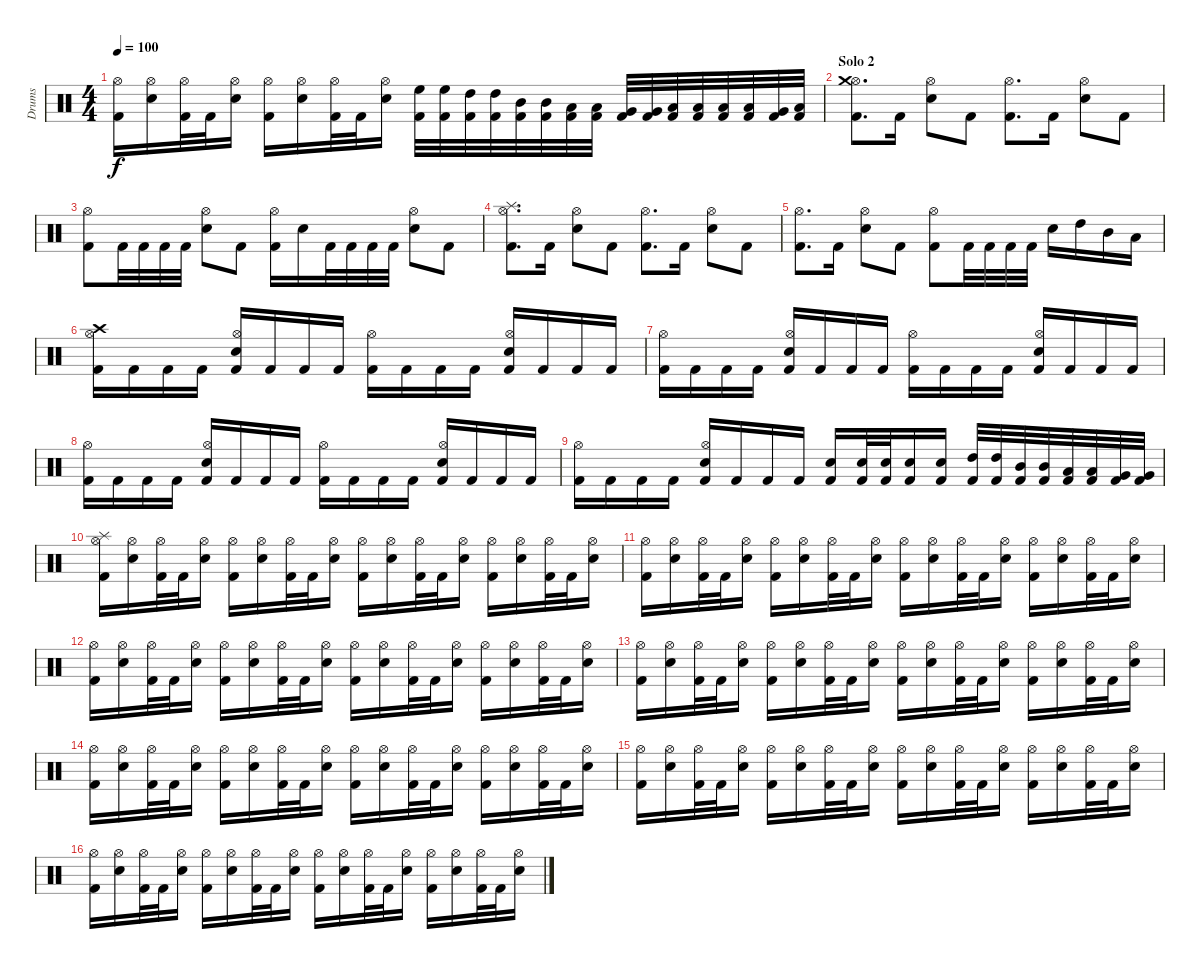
\track ("Drums" "Drums") {instrument percussion}
\staff {score}
\articulation defaults
\ts (4 4)
\tempo 100
\clef neutral
\ks c
("Kick (hit) 2" "Hi-Hat (open)").16{dy f} ("Electric Snare (hit)" "Hi-Hat (open)").16 ("Kick (hit) 2" "Hi-Hat (open)").32 "Kick (hit) 2".32 ("Electric Snare (hit)" "Hi-Hat (open)").16 ("Kick (hit) 2" "Hi-Hat (open)").16 ("Electric Snare (hit)" "Hi-Hat (open)").16 ("Kick (hit) 2" "Hi-Hat (open)").32 "Kick (hit) 2".32 ("Electric Snare (hit)" "Hi-Hat (open)").16 ("Kick (hit) 2" "High Floor Tom (hit)").32 ("Kick (hit) 2" "High Floor Tom (hit)").32 ("Kick (hit) 2" "High Tom (hit)").32 ("Kick (hit) 2" "High Tom (hit)").32 ("Kick (hit) 2" "Mid Tom (hit)").32 ("Kick (hit) 2" "Mid Tom (hit)").32 ("Kick (hit) 2" "Low Tom (hit)").32 ("Kick (hit) 2" "Low Tom (hit)").32 ("Kick (hit) 2" "Very Low Tom (hit)").32 ("Kick (hit) 2" "Very Low Tom (hit)").32 ("Kick (hit) 2" "Low Floor Tom (hit)").32 ("Kick (hit) 2" "Low Floor Tom (hit)").32 ("Kick (hit) 2" "Low Tom (hit)").32 ("Kick (hit) 2" "Low Tom (hit)").32 ("Kick (hit) 2" "Very Low Tom (hit)").32 ("Kick (hit) 2" "Low Floor Tom (hit)").32 |
\section ("" "Solo 2")
("Kick (hit) 2" "Hi-Hat (open)" "Crash medium (hit)").8{d} "Kick (hit) 2".16 ("Electric Snare (hit)" "Hi-Hat (open)").8 "Kick (hit) 2".8 ("Kick (hit) 2" "Hi-Hat (open)").8{d} "Kick (hit) 2".16 ("Electric Snare (hit)" "Hi-Hat (open)").8 "Kick (hit) 2".8 |
("Kick (hit) 2" "Hi-Hat (open)").8 "Kick (hit) 2".32 "Kick (hit) 2".32 "Kick (hit) 2".32 "Kick (hit) 2".32 ("Electric Snare (hit)" "Hi-Hat (open)").8 "Kick (hit) 2".8 ("Kick (hit) 2" "Hi-Hat (open)").16 "Electric Snare (hit)".16 "Kick (hit) 2".32 "Kick (hit) 2".32 "Kick (hit) 2".32 "Kick (hit) 2".32 ("Electric Snare (hit)" "Hi-Hat (open)").8 "Kick (hit) 2".8 |
("Kick (hit) 2" "Hi-Hat (open)" "Splash (hit)").8{d} "Kick (hit) 2".16 ("Electric Snare (hit)" "Hi-Hat (open)").8 "Kick (hit) 2".8 ("Kick (hit) 2" "Hi-Hat (open)").8{d} "Kick (hit) 2".16 ("Electric Snare (hit)" "Hi-Hat (open)").8 "Kick (hit) 2".8 |
("Kick (hit) 2" "Hi-Hat (open)").8{d} "Kick (hit) 2".16 ("Electric Snare (hit)" "Hi-Hat (open)").8 "Kick (hit) 2".8 ("Kick (hit) 2" "Hi-Hat (open)").8 "Kick (hit) 2".32 "Kick (hit) 2".32 "Kick (hit) 2".32 "Kick (hit) 2".32 "Electric Snare (hit)".16 "High Tom (hit)".16 "Mid Tom (hit)".16 "Low Tom (hit)".16 |
("Kick (hit) 2" "Hi-Hat (open)" "Crash high (hit)").16 "Kick (hit) 2".16 "Kick (hit) 2".16 "Kick (hit) 2".16 ("Kick (hit) 2" "Electric Snare (hit)" "Hi-Hat (open)").16 "Kick (hit) 2".16 "Kick (hit) 2".16 "Kick (hit) 2".16 ("Kick (hit) 2" "Hi-Hat (open)").16 "Kick (hit) 2".16 "Kick (hit) 2".16 "Kick (hit) 2".16 ("Kick (hit) 2" "Electric Snare (hit)" "Hi-Hat (open)").16 "Kick (hit) 2".16 "Kick (hit) 2".16 "Kick (hit) 2".16 |
("Kick (hit) 2" "Hi-Hat (open)").16 "Kick (hit) 2".16 "Kick (hit) 2".16 "Kick (hit) 2".16 ("Kick (hit) 2" "Electric Snare (hit)" "Hi-Hat (open)").16 "Kick (hit) 2".16 "Kick (hit) 2".16 "Kick (hit) 2".16 ("Kick (hit) 2" "Hi-Hat (open)").16 "Kick (hit) 2".16 "Kick (hit) 2".16 "Kick (hit) 2".16 ("Kick (hit) 2" "Electric Snare (hit)" "Hi-Hat (open)").16 "Kick (hit) 2".16 "Kick (hit) 2".16 "Kick (hit) 2".16 |
("Kick (hit) 2" "Hi-Hat (open)").16 "Kick (hit) 2".16 "Kick (hit) 2".16 "Kick (hit) 2".16 ("Kick (hit) 2" "Electric Snare (hit)" "Hi-Hat (open)").16 "Kick (hit) 2".16 "Kick (hit) 2".16 "Kick (hit) 2".16 ("Kick (hit) 2" "Hi-Hat (open)").16 "Kick (hit) 2".16 "Kick (hit) 2".16 "Kick (hit) 2".16 ("Kick (hit) 2" "Electric Snare (hit)" "Hi-Hat (open)").16 "Kick (hit) 2".16 "Kick (hit) 2".16 "Kick (hit) 2".16 |
("Kick (hit) 2" "Hi-Hat (open)").16 "Kick (hit) 2".16 "Kick (hit) 2".16 "Kick (hit) 2".16 ("Kick (hit) 2" "Electric Snare (hit)" "Hi-Hat (open)").16 "Kick (hit) 2".16 "Kick (hit) 2".16 "Kick (hit) 2".16 ("Kick (hit) 2" "Electric Snare (hit)").16 ("Kick (hit) 2" "Electric Snare (hit)").32 ("Kick (hit) 2" "Electric Snare (hit)").32 ("Kick (hit) 2" "Electric Snare (hit)").16 ("Kick (hit) 2" "Electric Snare (hit)").16 ("Kick (hit) 2" "High Tom (hit)").32 ("Kick (hit) 2" "High Tom (hit)").32 ("Kick (hit) 2" "Mid Tom (hit)").32 ("Kick (hit) 2" "Mid Tom (hit)").32 ("Kick (hit) 2" "Low Tom (hit)").32 ("Kick (hit) 2" "Low Tom (hit)").32 ("Kick (hit) 2" "Very Low Tom (hit)").32 ("Kick (hit) 2" "Very Low Tom (hit)").32 |
\section ("" "")
("Kick (hit) 2" "Hi-Hat (open)" "Splash (hit)").16 ("Electric Snare (hit)" "Hi-Hat (open)").16 ("Kick (hit) 2" "Hi-Hat (open)").32 "Kick (hit) 2".32 ("Electric Snare (hit)" "Hi-Hat (open)").16 ("Kick (hit) 2" "Hi-Hat (open)").16 ("Electric Snare (hit)" "Hi-Hat (open)").16 ("Kick (hit) 2" "Hi-Hat (open)").32 "Kick (hit) 2".32 ("Electric Snare (hit)" "Hi-Hat (open)").16 ("Kick (hit) 2" "Hi-Hat (open)").16 ("Electric Snare (hit)" "Hi-Hat (open)").16 ("Kick (hit) 2" "Hi-Hat (open)").32 "Kick (hit) 2".32 ("Electric Snare (hit)" "Hi-Hat (open)").16 ("Kick (hit) 2" "Hi-Hat (open)").16 ("Electric Snare (hit)" "Hi-Hat (open)").16 ("Kick (hit) 2" "Hi-Hat (open)").32 "Kick (hit) 2".32 ("Electric Snare (hit)" "Hi-Hat (open)").16 |
("Kick (hit) 2" "Hi-Hat (open)").16 ("Electric Snare (hit)" "Hi-Hat (open)").16 ("Kick (hit) 2" "Hi-Hat (open)").32 "Kick (hit) 2".32 ("Electric Snare (hit)" "Hi-Hat (open)").16 ("Kick (hit) 2" "Hi-Hat (open)").16 ("Electric Snare (hit)" "Hi-Hat (open)").16 ("Kick (hit) 2" "Hi-Hat (open)").32 "Kick (hit) 2".32 ("Electric Snare (hit)" "Hi-Hat (open)").16 ("Kick (hit) 2" "Hi-Hat (open)").16 ("Electric Snare (hit)" "Hi-Hat (open)").16 ("Kick (hit) 2" "Hi-Hat (open)").32 "Kick (hit) 2".32 ("Electric Snare (hit)" "Hi-Hat (open)").16 ("Kick (hit) 2" "Hi-Hat (open)").16 ("Electric Snare (hit)" "Hi-Hat (open)").16 ("Kick (hit) 2" "Hi-Hat (open)").32 "Kick (hit) 2".32 ("Electric Snare (hit)" "Hi-Hat (open)").16 |
("Kick (hit) 2" "Hi-Hat (open)").16 ("Electric Snare (hit)" "Hi-Hat (open)").16 ("Kick (hit) 2" "Hi-Hat (open)").32 "Kick (hit) 2".32 ("Electric Snare (hit)" "Hi-Hat (open)").16 ("Kick (hit) 2" "Hi-Hat (open)").16 ("Electric Snare (hit)" "Hi-Hat (open)").16 ("Kick (hit) 2" "Hi-Hat (open)").32 "Kick (hit) 2".32 ("Electric Snare (hit)" "Hi-Hat (open)").16 ("Kick (hit) 2" "Hi-Hat (open)").16 ("Electric Snare (hit)" "Hi-Hat (open)").16 ("Kick (hit) 2" "Hi-Hat (open)").32 "Kick (hit) 2".32 ("Electric Snare (hit)" "Hi-Hat (open)").16 ("Kick (hit) 2" "Hi-Hat (open)").16 ("Electric Snare (hit)" "Hi-Hat (open)").16 ("Kick (hit) 2" "Hi-Hat (open)").32 "Kick (hit) 2".32 ("Electric Snare (hit)" "Hi-Hat (open)").16 |
("Kick (hit) 2" "Hi-Hat (open)").16 ("Electric Snare (hit)" "Hi-Hat (open)").16 ("Kick (hit) 2" "Hi-Hat (open)").32 "Kick (hit) 2".32 ("Electric Snare (hit)" "Hi-Hat (open)").16 ("Kick (hit) 2" "Hi-Hat (open)").16 ("Electric Snare (hit)" "Hi-Hat (open)").16 ("Kick (hit) 2" "Hi-Hat (open)").32 "Kick (hit) 2".32 ("Electric Snare (hit)" "Hi-Hat (open)").16 ("Kick (hit) 2" "Hi-Hat (open)").16 ("Electric Snare (hit)" "Hi-Hat (open)").16 ("Kick (hit) 2" "Hi-Hat (open)").32 "Kick (hit) 2".32 ("Electric Snare (hit)" "Hi-Hat (open)").16 ("Kick (hit) 2" "Hi-Hat (open)").16 ("Electric Snare (hit)" "Hi-Hat (open)").16 ("Kick (hit) 2" "Hi-Hat (open)").32 "Kick (hit) 2".32 ("Electric Snare (hit)" "Hi-Hat (open)").16 |
("Kick (hit) 2" "Hi-Hat (open)").16 ("Electric Snare (hit)" "Hi-Hat (open)").16 ("Kick (hit) 2" "Hi-Hat (open)").32 "Kick (hit) 2".32 ("Electric Snare (hit)" "Hi-Hat (open)").16 ("Kick (hit) 2" "Hi-Hat (open)").16 ("Electric Snare (hit)" "Hi-Hat (open)").16 ("Kick (hit) 2" "Hi-Hat (open)").32 "Kick (hit) 2".32 ("Electric Snare (hit)" "Hi-Hat (open)").16 ("Kick (hit) 2" "Hi-Hat (open)").16 ("Electric Snare (hit)" "Hi-Hat (open)").16 ("Kick (hit) 2" "Hi-Hat (open)").32 "Kick (hit) 2".32 ("Electric Snare (hit)" "Hi-Hat (open)").16 ("Kick (hit) 2" "Hi-Hat (open)").16 ("Electric Snare (hit)" "Hi-Hat (open)").16 ("Kick (hit) 2" "Hi-Hat (open)").32 "Kick (hit) 2".32 ("Electric Snare (hit)" "Hi-Hat (open)").16 |
("Kick (hit) 2" "Hi-Hat (open)").16 ("Electric Snare (hit)" "Hi-Hat (open)").16 ("Kick (hit) 2" "Hi-Hat (open)").32 "Kick (hit) 2".32 ("Electric Snare (hit)" "Hi-Hat (open)").16 ("Kick (hit) 2" "Hi-Hat (open)").16 ("Electric Snare (hit)" "Hi-Hat (open)").16 ("Kick (hit) 2" "Hi-Hat (open)").32 "Kick (hit) 2".32 ("Electric Snare (hit)" "Hi-Hat (open)").16 ("Kick (hit) 2" "Hi-Hat (open)").16 ("Electric Snare (hit)" "Hi-Hat (open)").16 ("Kick (hit) 2" "Hi-Hat (open)").32 "Kick (hit) 2".32 ("Electric Snare (hit)" "Hi-Hat (open)").16 ("Kick (hit) 2" "Hi-Hat (open)").16 ("Electric Snare (hit)" "Hi-Hat (open)").16 ("Kick (hit) 2" "Hi-Hat (open)").32 "Kick (hit) 2".32 ("Electric Snare (hit)" "Hi-Hat (open)").16 |
("Kick (hit) 2" "Hi-Hat (open)").16 ("Electric Snare (hit)" "Hi-Hat (open)").16 ("Kick (hit) 2" "Hi-Hat (open)").32 "Kick (hit) 2".32 ("Electric Snare (hit)" "Hi-Hat (open)").16 ("Kick (hit) 2" "Hi-Hat (open)").16 ("Electric Snare (hit)" "Hi-Hat (open)").16 ("Kick (hit) 2" "Hi-Hat (open)").32 "Kick (hit) 2".32 ("Electric Snare (hit)" "Hi-Hat (open)").16 ("Kick (hit) 2" "Hi-Hat (open)").16 ("Electric Snare (hit)" "Hi-Hat (open)").16 ("Kick (hit) 2" "Hi-Hat (open)").32 "Kick (hit) 2".32 ("Electric Snare (hit)" "Hi-Hat (open)").16 ("Kick (hit) 2" "Hi-Hat (open)").16 ("Electric Snare (hit)" "Hi-Hat (open)").16 ("Kick (hit) 2" "Hi-Hat (open)").32 "Kick (hit) 2".32 ("Electric Snare (hit)" "Hi-Hat (open)").16
